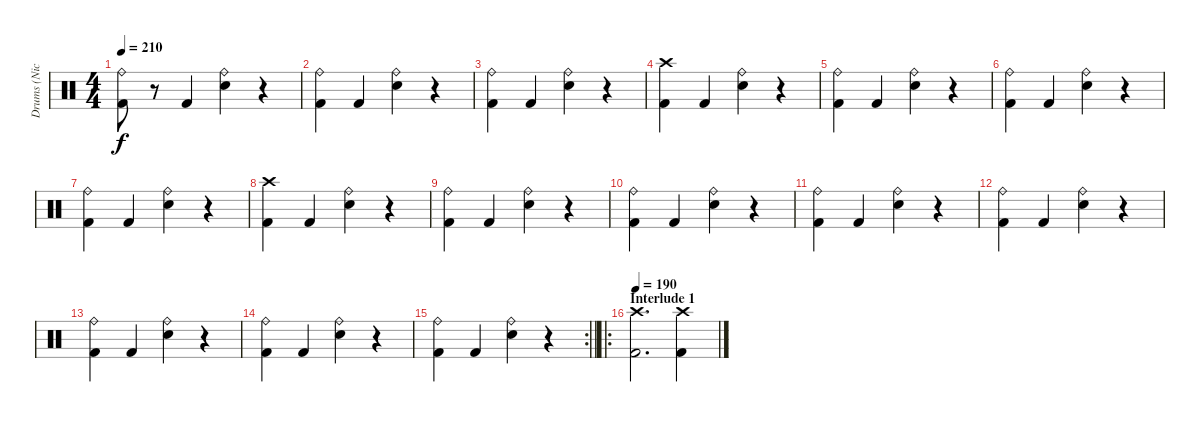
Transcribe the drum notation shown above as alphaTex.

\track ("Drums (Nicko McBrain)" "Drums (Nic") {instrument percussion}
\staff {score}
\articulation defaults
\ts (4 4)
\tempo 210
\clef neutral
\ks c
("Ride (bell)" "Kick (hit) 2").8{dy f} r.8 "Kick (hit) 2".4 ("Ride (bell)" "Electric Snare (hit)").4 r.4 |
("Ride (bell)" "Kick (hit) 2").4 "Kick (hit) 2".4 ("Ride (bell)" "Electric Snare (hit)").4 r.4 |
("Ride (bell)" "Kick (hit) 2").4 "Kick (hit) 2".4 ("Ride (bell)" "Electric Snare (hit)").4 r.4 |
("Crash high (hit)" "Kick (hit) 2").4 "Kick (hit) 2".4 ("Ride (bell)" "Electric Snare (hit)").4 r.4 |
("Ride (bell)" "Kick (hit) 2").4 "Kick (hit) 2".4 ("Ride (bell)" "Electric Snare (hit)").4 r.4 |
("Ride (bell)" "Kick (hit) 2").4 "Kick (hit) 2".4 ("Ride (bell)" "Electric Snare (hit)").4 r.4 |
("Ride (bell)" "Kick (hit) 2").4 "Kick (hit) 2".4 ("Ride (bell)" "Electric Snare (hit)").4 r.4 |
("Crash high (hit)" "Kick (hit) 2").4 "Kick (hit) 2".4 ("Ride (bell)" "Electric Snare (hit)").4 r.4 |
("Ride (bell)" "Kick (hit) 2").4 "Kick (hit) 2".4 ("Ride (bell)" "Electric Snare (hit)").4 r.4 |
("Ride (bell)" "Kick (hit) 2").4 "Kick (hit) 2".4 ("Ride (bell)" "Electric Snare (hit)").4 r.4 |
("Ride (bell)" "Kick (hit) 2").4 "Kick (hit) 2".4 ("Ride (bell)" "Electric Snare (hit)").4 r.4 |
("Ride (bell)" "Kick (hit) 2").4 "Kick (hit) 2".4 ("Ride (bell)" "Electric Snare (hit)").4 r.4 |
("Ride (bell)" "Kick (hit) 2").4 "Kick (hit) 2".4 ("Ride (bell)" "Electric Snare (hit)").4 r.4 |
("Ride (bell)" "Kick (hit) 2").4 "Kick (hit) 2".4 ("Ride (bell)" "Electric Snare (hit)").4 r.4 |
\rc 2
\barLineRight lightlight
("Ride (bell)" "Kick (hit) 2").4 "Kick (hit) 2".4 ("Ride (bell)" "Electric Snare (hit)").4 r.4 |
\ro
\section ("" "Interlude 1")
\tempo 190
("Crash high (hit)" "Kick (hit) 2").2{d} ("Crash high (hit)" "Kick (hit) 2").4
